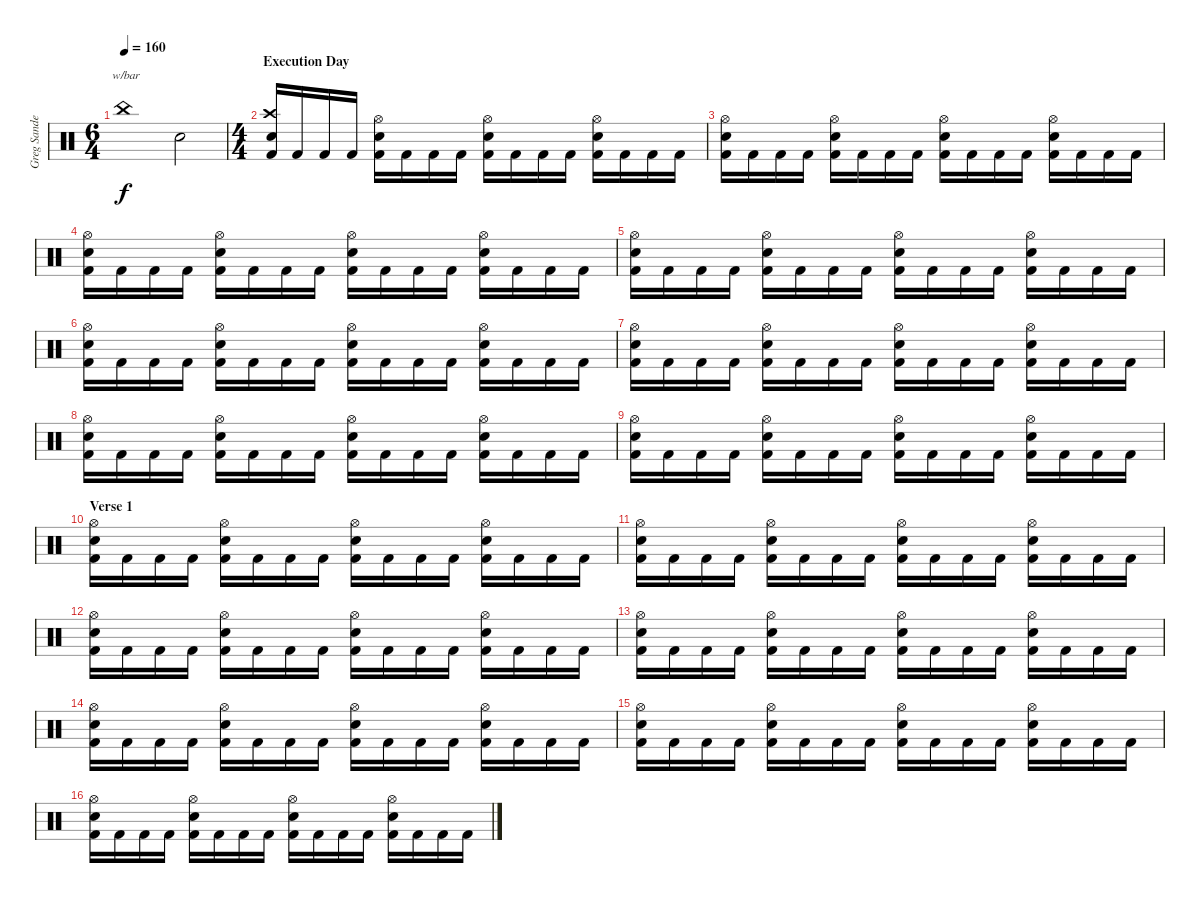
\track ("Greg Sanderson" "Greg Sande") {instrument percussion}
\staff {score}
\articulation defaults
\ts (6 4)
\tempo 160
\clef neutral
\ks c "China (hit)".1{tbe (custom default 0 0 5 -24 25 -24 45 -24 60 -24) dy f} "Snare (hit)"{t}.2
|
\ts (4 4)
\section ("" "Execution Day")
("Crash high (hit)" "Snare (hit) 2" "Kick (hit) 2").16 "Kick (hit) 2".16 "Kick (hit) 2".16 "Kick (hit) 2".16 ("Hi-Hat (open)" "Snare (hit) 2" "Kick (hit) 2").16 "Kick (hit) 2".16 "Kick (hit) 2".16 "Kick (hit) 2".16 ("Hi-Hat (open)" "Snare (hit) 2" "Kick (hit) 2").16 "Kick (hit) 2".16 "Kick (hit) 2".16 "Kick (hit) 2".16 ("Hi-Hat (open)" "Snare (hit) 2" "Kick (hit) 2").16 "Kick (hit) 2".16 "Kick (hit) 2".16 "Kick (hit) 2".16 |
("Hi-Hat (open)" "Snare (hit) 2" "Kick (hit) 2").16 "Kick (hit) 2".16 "Kick (hit) 2".16 "Kick (hit) 2".16 ("Hi-Hat (open)" "Snare (hit) 2" "Kick (hit) 2").16 "Kick (hit) 2".16 "Kick (hit) 2".16 "Kick (hit) 2".16 ("Hi-Hat (open)" "Snare (hit) 2" "Kick (hit) 2").16 "Kick (hit) 2".16 "Kick (hit) 2".16 "Kick (hit) 2".16 ("Hi-Hat (open)" "Snare (hit) 2" "Kick (hit) 2").16 "Kick (hit) 2".16 "Kick (hit) 2".16 "Kick (hit) 2".16 |
("Hi-Hat (open)" "Snare (hit) 2" "Kick (hit) 2").16 "Kick (hit) 2".16 "Kick (hit) 2".16 "Kick (hit) 2".16 ("Hi-Hat (open)" "Snare (hit) 2" "Kick (hit) 2").16 "Kick (hit) 2".16 "Kick (hit) 2".16 "Kick (hit) 2".16 ("Hi-Hat (open)" "Snare (hit) 2" "Kick (hit) 2").16 "Kick (hit) 2".16 "Kick (hit) 2".16 "Kick (hit) 2".16 ("Hi-Hat (open)" "Snare (hit) 2" "Kick (hit) 2").16 "Kick (hit) 2".16 "Kick (hit) 2".16 "Kick (hit) 2".16 |
("Hi-Hat (open)" "Snare (hit) 2" "Kick (hit) 2").16 "Kick (hit) 2".16 "Kick (hit) 2".16 "Kick (hit) 2".16 ("Hi-Hat (open)" "Snare (hit) 2" "Kick (hit) 2").16 "Kick (hit) 2".16 "Kick (hit) 2".16 "Kick (hit) 2".16 ("Hi-Hat (open)" "Snare (hit) 2" "Kick (hit) 2").16 "Kick (hit) 2".16 "Kick (hit) 2".16 "Kick (hit) 2".16 ("Hi-Hat (open)" "Snare (hit) 2" "Kick (hit) 2").16 "Kick (hit) 2".16 "Kick (hit) 2".16 "Kick (hit) 2".16 |
("Hi-Hat (open)" "Snare (hit) 2" "Kick (hit) 2").16 "Kick (hit) 2".16 "Kick (hit) 2".16 "Kick (hit) 2".16 ("Hi-Hat (open)" "Snare (hit) 2" "Kick (hit) 2").16 "Kick (hit) 2".16 "Kick (hit) 2".16 "Kick (hit) 2".16 ("Hi-Hat (open)" "Snare (hit) 2" "Kick (hit) 2").16 "Kick (hit) 2".16 "Kick (hit) 2".16 "Kick (hit) 2".16 ("Hi-Hat (open)" "Snare (hit) 2" "Kick (hit) 2").16 "Kick (hit) 2".16 "Kick (hit) 2".16 "Kick (hit) 2".16 |
("Hi-Hat (open)" "Snare (hit) 2" "Kick (hit) 2").16 "Kick (hit) 2".16 "Kick (hit) 2".16 "Kick (hit) 2".16 ("Hi-Hat (open)" "Snare (hit) 2" "Kick (hit) 2").16 "Kick (hit) 2".16 "Kick (hit) 2".16 "Kick (hit) 2".16 ("Hi-Hat (open)" "Snare (hit) 2" "Kick (hit) 2").16 "Kick (hit) 2".16 "Kick (hit) 2".16 "Kick (hit) 2".16 ("Hi-Hat (open)" "Snare (hit) 2" "Kick (hit) 2").16 "Kick (hit) 2".16 "Kick (hit) 2".16 "Kick (hit) 2".16 |
("Hi-Hat (open)" "Snare (hit) 2" "Kick (hit) 2").16 "Kick (hit) 2".16 "Kick (hit) 2".16 "Kick (hit) 2".16 ("Hi-Hat (open)" "Snare (hit) 2" "Kick (hit) 2").16 "Kick (hit) 2".16 "Kick (hit) 2".16 "Kick (hit) 2".16 ("Hi-Hat (open)" "Snare (hit) 2" "Kick (hit) 2").16 "Kick (hit) 2".16 "Kick (hit) 2".16 "Kick (hit) 2".16 ("Hi-Hat (open)" "Snare (hit) 2" "Kick (hit) 2").16 "Kick (hit) 2".16 "Kick (hit) 2".16 "Kick (hit) 2".16 |
("Hi-Hat (open)" "Snare (hit) 2" "Kick (hit) 2").16 "Kick (hit) 2".16 "Kick (hit) 2".16 "Kick (hit) 2".16 ("Hi-Hat (open)" "Snare (hit) 2" "Kick (hit) 2").16 "Kick (hit) 2".16 "Kick (hit) 2".16 "Kick (hit) 2".16 ("Hi-Hat (open)" "Snare (hit) 2" "Kick (hit) 2").16 "Kick (hit) 2".16 "Kick (hit) 2".16 "Kick (hit) 2".16 ("Hi-Hat (open)" "Snare (hit) 2" "Kick (hit) 2").16 "Kick (hit) 2".16 "Kick (hit) 2".16 "Kick (hit) 2".16 |
\section ("" "Verse 1")
("Hi-Hat (open)" "Snare (hit) 2" "Kick (hit) 2").16 "Kick (hit) 2".16 "Kick (hit) 2".16 "Kick (hit) 2".16 ("Hi-Hat (open)" "Snare (hit) 2" "Kick (hit) 2").16 "Kick (hit) 2".16 "Kick (hit) 2".16 "Kick (hit) 2".16 ("Hi-Hat (open)" "Snare (hit) 2" "Kick (hit) 2").16 "Kick (hit) 2".16 "Kick (hit) 2".16 "Kick (hit) 2".16 ("Hi-Hat (open)" "Snare (hit) 2" "Kick (hit) 2").16 "Kick (hit) 2".16 "Kick (hit) 2".16 "Kick (hit) 2".16 |
("Hi-Hat (open)" "Snare (hit) 2" "Kick (hit) 2").16 "Kick (hit) 2".16 "Kick (hit) 2".16 "Kick (hit) 2".16 ("Hi-Hat (open)" "Snare (hit) 2" "Kick (hit) 2").16 "Kick (hit) 2".16 "Kick (hit) 2".16 "Kick (hit) 2".16 ("Hi-Hat (open)" "Snare (hit) 2" "Kick (hit) 2").16 "Kick (hit) 2".16 "Kick (hit) 2".16 "Kick (hit) 2".16 ("Hi-Hat (open)" "Snare (hit) 2" "Kick (hit) 2").16 "Kick (hit) 2".16 "Kick (hit) 2".16 "Kick (hit) 2".16 |
("Hi-Hat (open)" "Snare (hit) 2" "Kick (hit) 2").16 "Kick (hit) 2".16 "Kick (hit) 2".16 "Kick (hit) 2".16 ("Hi-Hat (open)" "Snare (hit) 2" "Kick (hit) 2").16 "Kick (hit) 2".16 "Kick (hit) 2".16 "Kick (hit) 2".16 ("Hi-Hat (open)" "Snare (hit) 2" "Kick (hit) 2").16 "Kick (hit) 2".16 "Kick (hit) 2".16 "Kick (hit) 2".16 ("Hi-Hat (open)" "Snare (hit) 2" "Kick (hit) 2").16 "Kick (hit) 2".16 "Kick (hit) 2".16 "Kick (hit) 2".16 |
("Hi-Hat (open)" "Snare (hit) 2" "Kick (hit) 2").16 "Kick (hit) 2".16 "Kick (hit) 2".16 "Kick (hit) 2".16 ("Hi-Hat (open)" "Snare (hit) 2" "Kick (hit) 2").16 "Kick (hit) 2".16 "Kick (hit) 2".16 "Kick (hit) 2".16 ("Hi-Hat (open)" "Snare (hit) 2" "Kick (hit) 2").16 "Kick (hit) 2".16 "Kick (hit) 2".16 "Kick (hit) 2".16 ("Hi-Hat (open)" "Snare (hit) 2" "Kick (hit) 2").16 "Kick (hit) 2".16 "Kick (hit) 2".16 "Kick (hit) 2".16 |
("Hi-Hat (open)" "Snare (hit) 2" "Kick (hit) 2").16 "Kick (hit) 2".16 "Kick (hit) 2".16 "Kick (hit) 2".16 ("Hi-Hat (open)" "Snare (hit) 2" "Kick (hit) 2").16 "Kick (hit) 2".16 "Kick (hit) 2".16 "Kick (hit) 2".16 ("Hi-Hat (open)" "Snare (hit) 2" "Kick (hit) 2").16 "Kick (hit) 2".16 "Kick (hit) 2".16 "Kick (hit) 2".16 ("Hi-Hat (open)" "Snare (hit) 2" "Kick (hit) 2").16 "Kick (hit) 2".16 "Kick (hit) 2".16 "Kick (hit) 2".16 |
("Hi-Hat (open)" "Snare (hit) 2" "Kick (hit) 2").16 "Kick (hit) 2".16 "Kick (hit) 2".16 "Kick (hit) 2".16 ("Hi-Hat (open)" "Snare (hit) 2" "Kick (hit) 2").16 "Kick (hit) 2".16 "Kick (hit) 2".16 "Kick (hit) 2".16 ("Hi-Hat (open)" "Snare (hit) 2" "Kick (hit) 2").16 "Kick (hit) 2".16 "Kick (hit) 2".16 "Kick (hit) 2".16 ("Hi-Hat (open)" "Snare (hit) 2" "Kick (hit) 2").16 "Kick (hit) 2".16 "Kick (hit) 2".16 "Kick (hit) 2".16 |
("Hi-Hat (open)" "Snare (hit) 2" "Kick (hit) 2").16 "Kick (hit) 2".16 "Kick (hit) 2".16 "Kick (hit) 2".16 ("Hi-Hat (open)" "Snare (hit) 2" "Kick (hit) 2").16 "Kick (hit) 2".16 "Kick (hit) 2".16 "Kick (hit) 2".16 ("Hi-Hat (open)" "Snare (hit) 2" "Kick (hit) 2").16 "Kick (hit) 2".16 "Kick (hit) 2".16 "Kick (hit) 2".16 ("Hi-Hat (open)" "Snare (hit) 2" "Kick (hit) 2").16 "Kick (hit) 2".16 "Kick (hit) 2".16 "Kick (hit) 2".16
